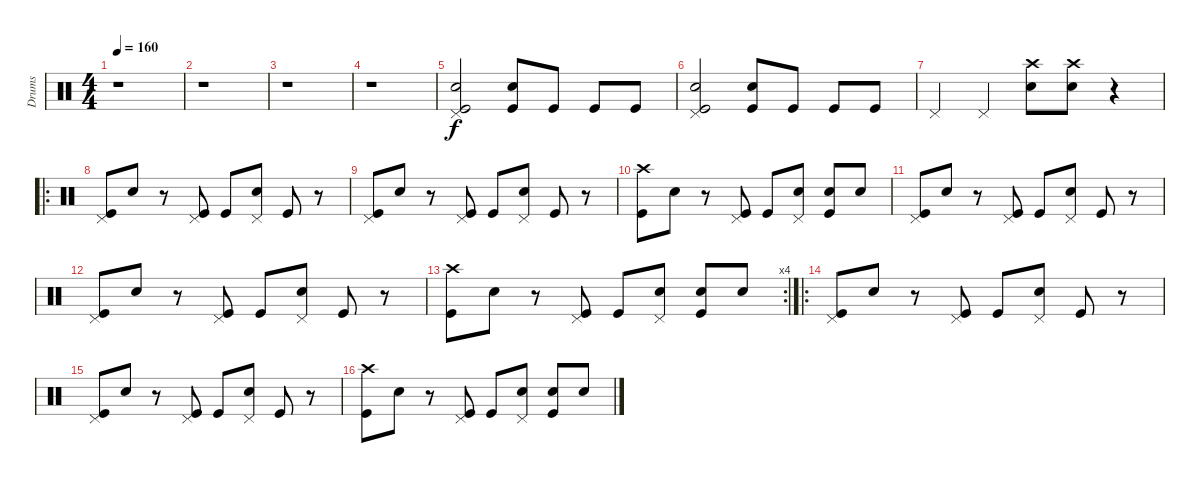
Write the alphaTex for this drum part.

\track ("Drums" "Drums") {instrument percussion}
\staff {score}
\articulation defaults
\ts (4 4)
\tempo 160
\clef neutral
\ks c
r.1{dy f} |
r.1 |
r.1 |
r.1 |
("Pedal Hi-Hat (hit)" "Snare (hit) 2" "Kick (hit)").2 ("Snare (hit) 2" "Kick (hit)").8 "Kick (hit)".8 "Kick (hit)".8 "Kick (hit)".8 |
("Pedal Hi-Hat (hit)" "Snare (hit) 2" "Kick (hit)").2 ("Snare (hit) 2" "Kick (hit)").8 "Kick (hit)".8 "Kick (hit)".8 "Kick (hit)".8 |
"Pedal Hi-Hat (hit)".4 "Pedal Hi-Hat (hit)".4 ("Crash high (hit)" "Snare (hit) 2").8 ("Crash high (hit)" "Snare (hit) 2").8 r.4 |
\ro
("Pedal Hi-Hat (hit)" "Kick (hit)").8 "Snare (hit) 2".8 r.8 ("Pedal Hi-Hat (hit)" "Kick (hit)").8 "Kick (hit)".8 ("Pedal Hi-Hat (hit)" "Snare (hit) 2").8 "Kick (hit)".8 r.8 |
("Pedal Hi-Hat (hit)" "Kick (hit)").8 "Snare (hit) 2".8 r.8 ("Pedal Hi-Hat (hit)" "Kick (hit)").8 "Kick (hit)".8 ("Pedal Hi-Hat (hit)" "Snare (hit) 2").8 "Kick (hit)".8 r.8 |
("Crash high (hit)" "Kick (hit)").8 "Snare (hit) 2".8 r.8 ("Pedal Hi-Hat (hit)" "Kick (hit)").8 "Kick (hit)".8 ("Pedal Hi-Hat (hit)" "Snare (hit) 2").8 ("Snare (hit) 2" "Kick (hit)").8 "Snare (hit) 2".8 |
("Pedal Hi-Hat (hit)" "Kick (hit)").8 "Snare (hit) 2".8 r.8 ("Pedal Hi-Hat (hit)" "Kick (hit)").8 "Kick (hit)".8 ("Pedal Hi-Hat (hit)" "Snare (hit) 2").8 "Kick (hit)".8 r.8 |
("Pedal Hi-Hat (hit)" "Kick (hit)").8 "Snare (hit) 2".8 r.8 ("Pedal Hi-Hat (hit)" "Kick (hit)").8 "Kick (hit)".8 ("Pedal Hi-Hat (hit)" "Snare (hit) 2").8 "Kick (hit)".8 r.8 |
\rc 4
("Crash high (hit)" "Kick (hit)").8 "Snare (hit) 2".8 r.8 ("Pedal Hi-Hat (hit)" "Kick (hit)").8 "Kick (hit)".8 ("Pedal Hi-Hat (hit)" "Snare (hit) 2").8 ("Snare (hit) 2" "Kick (hit)").8 "Snare (hit) 2".8 |
\ro
("Pedal Hi-Hat (hit)" "Kick (hit)").8 "Snare (hit) 2".8 r.8 ("Pedal Hi-Hat (hit)" "Kick (hit)").8 "Kick (hit)".8 ("Pedal Hi-Hat (hit)" "Snare (hit) 2").8 "Kick (hit)".8 r.8 |
("Pedal Hi-Hat (hit)" "Kick (hit)").8 "Snare (hit) 2".8 r.8 ("Pedal Hi-Hat (hit)" "Kick (hit)").8 "Kick (hit)".8 ("Pedal Hi-Hat (hit)" "Snare (hit) 2").8 "Kick (hit)".8 r.8 |
("Crash high (hit)" "Kick (hit)").8 "Snare (hit) 2".8 r.8 ("Pedal Hi-Hat (hit)" "Kick (hit)").8 "Kick (hit)".8 ("Pedal Hi-Hat (hit)" "Snare (hit) 2").8 ("Snare (hit) 2" "Kick (hit)").8 "Snare (hit) 2".8
